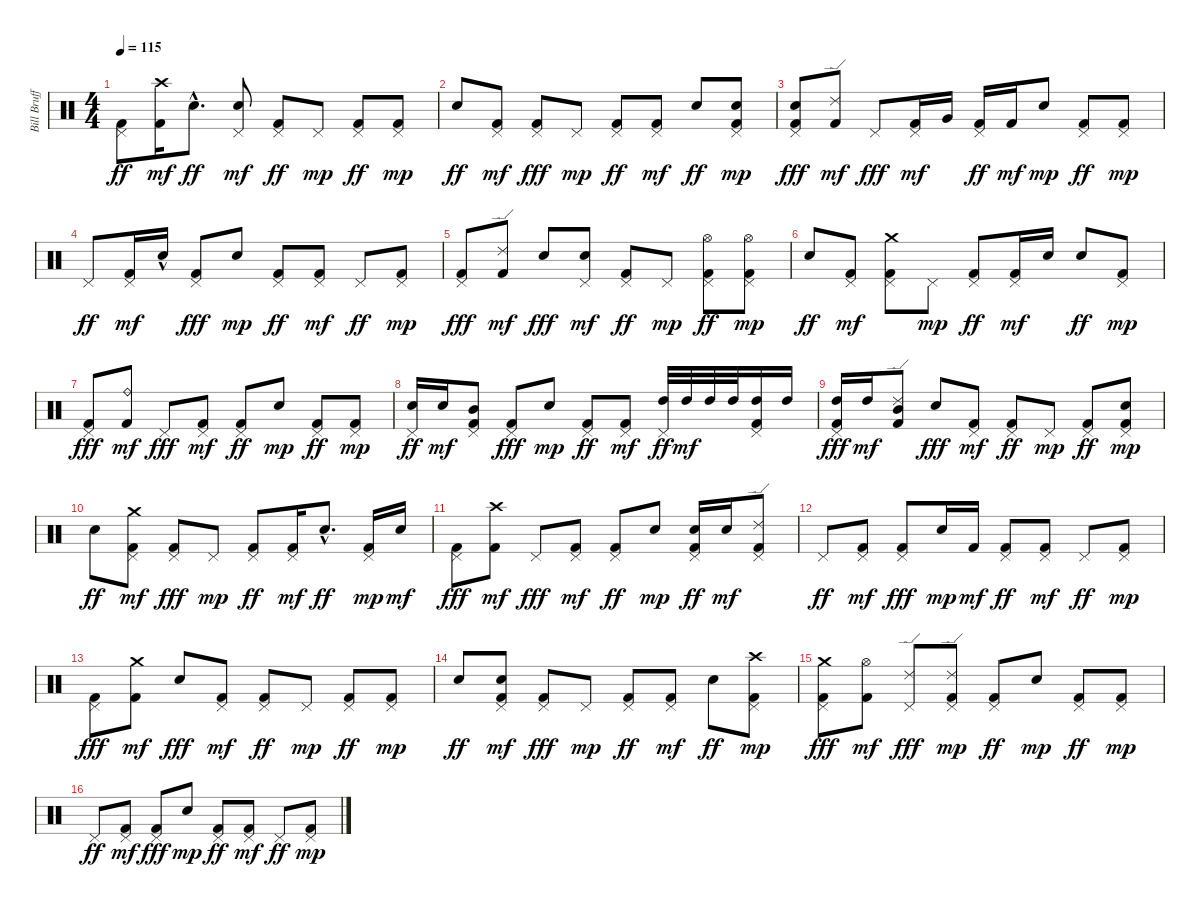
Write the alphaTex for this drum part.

\track ("Bill Brufford Drums" "Bill Bruff") {instrument percussion}
\staff {score}
\articulation defaults
\ts (4 4)
\tempo 115
\clef neutral
\ks c
("Pedal Hi-Hat (hit)" "Kick (hit) 2").8{dy ff} ("Crash high (hit)" "Kick (hit) 2").16{dy mf} "Electric Snare (hit)"{hac}.8{d dy ff} ("Pedal Hi-Hat (hit)" "Electric Snare (hit)").8{dy mf} ("Pedal Hi-Hat (hit)" "Kick (hit) 2").8{dy ff} "Pedal Hi-Hat (hit)".8{dy mp} ("Pedal Hi-Hat (hit)" "Kick (hit) 2").8{dy ff} ("Pedal Hi-Hat (hit)" "Kick (hit) 2").8{dy mp} |
"Electric Snare (hit)".8{dy ff} ("Pedal Hi-Hat (hit)" "Kick (hit) 2").8{dy mf} ("Pedal Hi-Hat (hit)" "Kick (hit) 2").8{dy fff} "Pedal Hi-Hat (hit)".8{dy mp} ("Pedal Hi-Hat (hit)" "Kick (hit) 2").8{dy ff} ("Pedal Hi-Hat (hit)" "Kick (hit) 2").8{dy mf} "Electric Snare (hit)".8{dy ff} ("Electric Snare (hit)" "Pedal Hi-Hat (hit)" "Kick (hit) 2").8{dy mp} |
("Electric Snare (hit)" "Pedal Hi-Hat (hit)" "Kick (hit) 2").8{dy fff} ("Ride (edge) 2" "Kick (hit) 2").8{dy mf} "Pedal Hi-Hat (hit)".8{dy fff} ("Pedal Hi-Hat (hit)" "Kick (hit) 2").16{dy mf} "Very Low Tom (hit)".16 ("Pedal Hi-Hat (hit)" "Kick (hit) 2").16{dy ff} "Kick (hit) 2".16{dy mf} "Electric Snare (hit)".8{dy mp} ("Pedal Hi-Hat (hit)" "Kick (hit) 2").8{dy ff} ("Pedal Hi-Hat (hit)" "Kick (hit) 2").8{dy mp} |
"Pedal Hi-Hat (hit)".8{dy ff} ("Pedal Hi-Hat (hit)" "Kick (hit) 2").16{dy mf} "Electric Snare (hit)"{hac}.16 ("Pedal Hi-Hat (hit)" "Kick (hit) 2").8{dy fff} "Electric Snare (hit)".8{dy mp} ("Pedal Hi-Hat (hit)" "Kick (hit) 2").8{dy ff} ("Pedal Hi-Hat (hit)" "Kick (hit) 2").8{dy mf} "Pedal Hi-Hat (hit)".8{dy ff} ("Pedal Hi-Hat (hit)" "Kick (hit) 2").8{dy mp} |
("Pedal Hi-Hat (hit)" "Kick (hit) 2").8{dy fff} ("Ride (edge) 2" "Kick (hit) 2").8{dy mf} "Electric Snare (hit)".8{dy fff} ("Pedal Hi-Hat (hit)" "Snare (hit) 2").8{dy mf} ("Pedal Hi-Hat (hit)" "Kick (hit) 2").8{dy ff} "Pedal Hi-Hat (hit)".8{dy mp} ("Hi-Hat (open)" "Pedal Hi-Hat (hit)" "Kick (hit) 2").8{dy ff} ("Hi-Hat (open)" "Pedal Hi-Hat (hit)" "Kick (hit) 2").8{dy mp} |
"Electric Snare (hit)".8{dy ff} ("Pedal Hi-Hat (hit)" "Kick (hit) 2").8{dy mf} ("Pedal Hi-Hat (hit)" "Kick (hit) 2" "Crash medium (hit)").8 "Pedal Hi-Hat (hit)".8{dy mp} ("Pedal Hi-Hat (hit)" "Kick (hit) 2").8{dy ff} ("Pedal Hi-Hat (hit)" "Kick (hit) 2").16{dy mf} "Electric Snare (hit)".16 "Electric Snare (hit)".8{dy ff} ("Pedal Hi-Hat (hit)" "Kick (hit) 2").8{dy mp} |
("Pedal Hi-Hat (hit)" "Kick (hit) 2").8{dy fff} ("Ride (bell)" "Kick (hit) 2").8{dy mf} "Pedal Hi-Hat (hit)".8{dy fff} ("Pedal Hi-Hat (hit)" "Kick (hit) 2").8{dy mf} ("Pedal Hi-Hat (hit)" "Kick (hit) 2").8{dy ff} "Electric Snare (hit)".8{dy mp} ("Pedal Hi-Hat (hit)" "Kick (hit) 2").8{dy ff} ("Pedal Hi-Hat (hit)" "Kick (hit) 2").8{dy mp} |
("Electric Snare (hit)" "Pedal Hi-Hat (hit)").16{dy ff} "Electric Snare (hit)".16{dy mf} ("Mid Tom (hit)" "Pedal Hi-Hat (hit)" "Kick (hit) 2").8 ("Pedal Hi-Hat (hit)" "Kick (hit) 2").8{dy fff} "Electric Snare (hit)".8{dy mp} ("Pedal Hi-Hat (hit)" "Kick (hit) 2").8{dy ff} ("Pedal Hi-Hat (hit)" "Kick (hit) 2").8{dy mf} ("High Tom (hit)" "Pedal Hi-Hat (hit)").32{dy ff} "High Tom (hit)".32{dy mf} "High Tom (hit)".32 "High Tom (hit)".32 ("Pedal Hi-Hat (hit)" "Kick (hit) 2" "High Tom (hit)").16 "High Tom (hit)".16 |
("High Tom (hit)" "Pedal Hi-Hat (hit)" "Kick (hit) 2").16{dy fff} "High Tom (hit)".16{dy mf} ("Kick (hit) 2" "Mid Tom (hit)" "Ride (edge) 2").8 "Electric Snare (hit)".8{dy fff} ("Pedal Hi-Hat (hit)" "Kick (hit) 2").8{dy mf} ("Pedal Hi-Hat (hit)" "Kick (hit) 2").8{dy ff} "Pedal Hi-Hat (hit)".8{dy mp} ("Pedal Hi-Hat (hit)" "Kick (hit) 2").8{dy ff} ("Electric Snare (hit)" "Pedal Hi-Hat (hit)" "Kick (hit) 2").8{dy mp} |
"Electric Snare (hit)".8{dy ff} ("Kick (hit) 2" "Crash medium (hit)" "Pedal Hi-Hat (hit)").8{dy mf} ("Pedal Hi-Hat (hit)" "Kick (hit) 2").8{dy fff} "Pedal Hi-Hat (hit)".8{dy mp} ("Pedal Hi-Hat (hit)" "Kick (hit) 2").8{dy ff} ("Pedal Hi-Hat (hit)" "Kick (hit) 2").16{dy mf} "Electric Snare (hit)"{hac}.8{d dy ff} ("Pedal Hi-Hat (hit)" "Kick (hit) 2").16{dy mp} "Electric Snare (hit)".16{dy mf} |
("Pedal Hi-Hat (hit)" "Kick (hit) 2").8{dy fff} ("Crash high (hit)" "Kick (hit) 2").8{dy mf} "Pedal Hi-Hat (hit)".8{dy fff} ("Pedal Hi-Hat (hit)" "Kick (hit) 2").8{dy mf} ("Pedal Hi-Hat (hit)" "Kick (hit) 2").8{dy ff} "Electric Snare (hit)".8{dy mp} ("Electric Snare (hit)" "Pedal Hi-Hat (hit)" "Kick (hit) 2").16{dy ff} "Snare (hit) 2".16{dy mf} ("Pedal Hi-Hat (hit)" "Kick (hit) 2" "Ride (edge) 2").8 |
"Pedal Hi-Hat (hit)".8{dy ff} ("Pedal Hi-Hat (hit)" "Kick (hit) 2").8{dy mf} ("Pedal Hi-Hat (hit)" "Kick (hit) 2").8{dy fff} "Electric Snare (hit)".16{dy mp} "Kick (hit) 2".16{dy mf} ("Pedal Hi-Hat (hit)" "Kick (hit) 2").8{dy ff} ("Pedal Hi-Hat (hit)" "Kick (hit) 2").8{dy mf} "Pedal Hi-Hat (hit)".8{dy ff} ("Pedal Hi-Hat (hit)" "Kick (hit) 2").8{dy mp} |
("Pedal Hi-Hat (hit)" "Kick (hit) 2").8{dy fff} ("Crash medium (hit)" "Kick (hit) 2").8{dy mf} "Electric Snare (hit)".8{dy fff} ("Pedal Hi-Hat (hit)" "Kick (hit) 2").8{dy mf} ("Pedal Hi-Hat (hit)" "Kick (hit) 2").8{dy ff} "Pedal Hi-Hat (hit)".8{dy mp} ("Pedal Hi-Hat (hit)" "Kick (hit) 2").8{dy ff} ("Pedal Hi-Hat (hit)" "Kick (hit) 2").8{dy mp} |
"Electric Snare (hit)".8{dy ff} ("Pedal Hi-Hat (hit)" "Kick (hit) 2" "Electric Snare (hit)").8{dy mf} ("Pedal Hi-Hat (hit)" "Kick (hit) 2").8{dy fff} "Pedal Hi-Hat (hit)".8{dy mp} ("Pedal Hi-Hat (hit)" "Kick (hit) 2").8{dy ff} ("Pedal Hi-Hat (hit)" "Kick (hit) 2").8{dy mf} "Electric Snare (hit)".8{dy ff} ("Crash high (hit)" "Pedal Hi-Hat (hit)" "Kick (hit) 2").8{dy mp} |
("Crash medium (hit)" "Pedal Hi-Hat (hit)" "Kick (hit) 2").8{dy fff} ("Hi-Hat (open)" "Kick (hit) 2").8{dy mf} ("Ride (edge) 2" "Pedal Hi-Hat (hit)").8{dy fff} ("Pedal Hi-Hat (hit)" "Kick (hit) 2" "Ride (edge) 2").8{dy mp} ("Pedal Hi-Hat (hit)" "Kick (hit) 2").8{dy ff} "Electric Snare (hit)".8{dy mp} ("Pedal Hi-Hat (hit)" "Kick (hit) 2").8{dy ff} ("Pedal Hi-Hat (hit)" "Kick (hit) 2").8{dy mp} |
"Pedal Hi-Hat (hit)".8{dy ff} ("Pedal Hi-Hat (hit)" "Kick (hit) 2").8{dy mf} ("Pedal Hi-Hat (hit)" "Kick (hit) 2").8{dy fff} "Electric Snare (hit)".8{dy mp} ("Pedal Hi-Hat (hit)" "Kick (hit) 2").8{dy ff} ("Pedal Hi-Hat (hit)" "Kick (hit) 2").8{dy mf} "Pedal Hi-Hat (hit)".8{dy ff} ("Pedal Hi-Hat (hit)" "Kick (hit) 2").8{dy mp}
